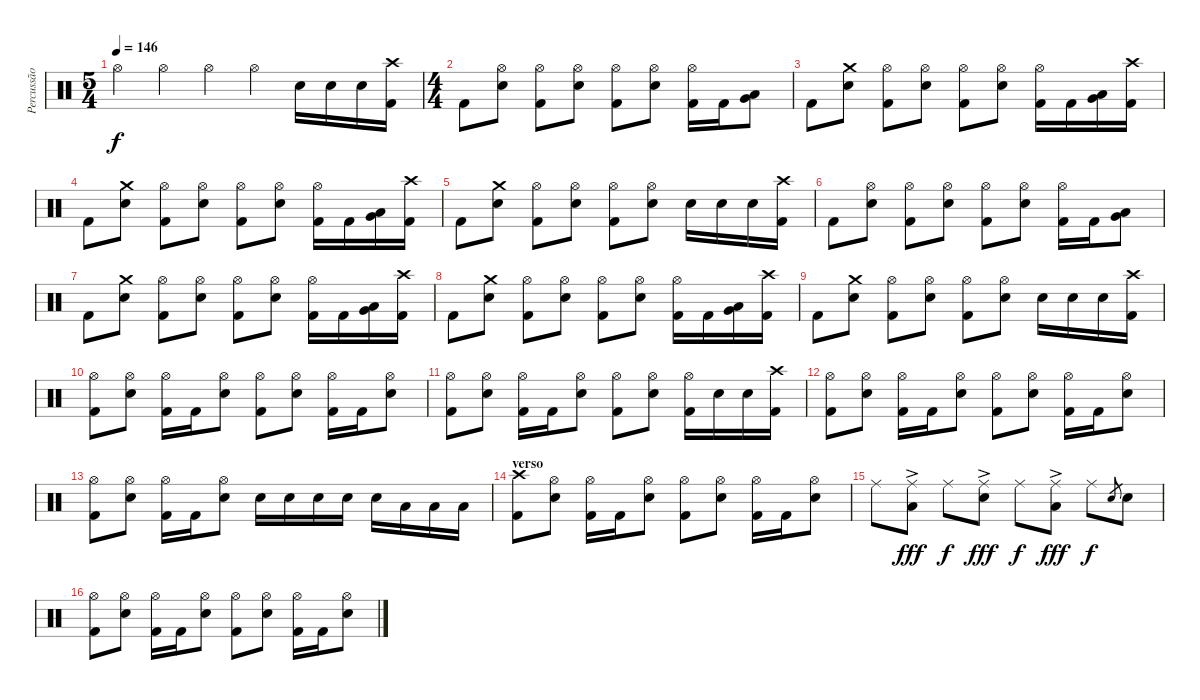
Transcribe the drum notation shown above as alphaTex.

\track ("Percussão" "Percussão") {instrument percussion}
\staff {score}
\articulation defaults
\ts (5 4)
\tempo 146
\clef neutral
\ks c "Hi-Hat (open)".4{dy f} "Hi-Hat (open)".4 "Hi-Hat (open)".4 "Hi-Hat (open)".4 "Snare (hit) 2".16 "Snare (hit) 2".16 "Snare (hit) 2".16
("Crash high (hit)" "Kick (hit) 2").16 |
\ts (4 4)
"Kick (hit) 2".8 ("Hi-Hat (open)" "Snare (hit) 2").8 ("Hi-Hat (open)" "Kick (hit) 2").8 ("Hi-Hat (open)" "Snare (hit) 2").8 ("Hi-Hat (open)" "Kick (hit) 2").8 ("Hi-Hat (open)" "Snare (hit) 2").8 ("Hi-Hat (open)" "Kick (hit) 2").16 "Kick (hit) 2".16 ("Very Low Tom (hit)" "Low Tom (hit)").8 |
"Kick (hit) 2".8 ("Crash medium (hit)" "Snare (hit) 2").8 ("Hi-Hat (open)" "Kick (hit) 2").8 ("Hi-Hat (open)" "Snare (hit) 2").8 ("Hi-Hat (open)" "Kick (hit) 2").8 ("Hi-Hat (open)" "Snare (hit) 2").8 ("Hi-Hat (open)" "Kick (hit) 2").16 "Kick (hit) 2".16 ("Very Low Tom (hit)" "Low Tom (hit)").16 ("Crash high (hit)" "Kick (hit) 2").16 |
"Kick (hit) 2".8 ("Crash medium (hit)" "Snare (hit) 2").8 ("Hi-Hat (open)" "Kick (hit) 2").8 ("Hi-Hat (open)" "Snare (hit) 2").8 ("Hi-Hat (open)" "Kick (hit) 2").8 ("Hi-Hat (open)" "Snare (hit) 2").8 ("Hi-Hat (open)" "Kick (hit) 2").16 "Kick (hit) 2".16 ("Very Low Tom (hit)" "Low Tom (hit)").16 ("Crash high (hit)" "Kick (hit) 2").16 |
"Kick (hit) 2".8 ("Crash medium (hit)" "Snare (hit) 2").8 ("Hi-Hat (open)" "Kick (hit) 2").8 ("Hi-Hat (open)" "Snare (hit) 2").8 ("Hi-Hat (open)" "Kick (hit) 2").8 ("Hi-Hat (open)" "Snare (hit) 2").8 "Snare (hit) 2".16 "Snare (hit) 2".16 "Snare (hit) 2".16 ("Crash high (hit)" "Kick (hit) 2").16 |
"Kick (hit) 2".8 ("Hi-Hat (open)" "Snare (hit) 2").8 ("Hi-Hat (open)" "Kick (hit) 2").8 ("Hi-Hat (open)" "Snare (hit) 2").8 ("Hi-Hat (open)" "Kick (hit) 2").8 ("Hi-Hat (open)" "Snare (hit) 2").8 ("Hi-Hat (open)" "Kick (hit) 2").16 "Kick (hit) 2".16 ("Very Low Tom (hit)" "Low Tom (hit)").8 |
"Kick (hit) 2".8 ("Crash medium (hit)" "Snare (hit) 2").8 ("Hi-Hat (open)" "Kick (hit) 2").8 ("Hi-Hat (open)" "Snare (hit) 2").8 ("Hi-Hat (open)" "Kick (hit) 2").8 ("Hi-Hat (open)" "Snare (hit) 2").8 ("Hi-Hat (open)" "Kick (hit) 2").16 "Kick (hit) 2".16 ("Very Low Tom (hit)" "Low Tom (hit)").16 ("Crash high (hit)" "Kick (hit) 2").16 |
"Kick (hit) 2".8 ("Crash medium (hit)" "Snare (hit) 2").8 ("Hi-Hat (open)" "Kick (hit) 2").8 ("Hi-Hat (open)" "Snare (hit) 2").8 ("Hi-Hat (open)" "Kick (hit) 2").8 ("Hi-Hat (open)" "Snare (hit) 2").8 ("Hi-Hat (open)" "Kick (hit) 2").16 "Kick (hit) 2".16 ("Very Low Tom (hit)" "Low Tom (hit)").16 ("Crash high (hit)" "Kick (hit) 2").16 |
"Kick (hit) 2".8 ("Crash medium (hit)" "Snare (hit) 2").8 ("Hi-Hat (open)" "Kick (hit) 2").8 ("Hi-Hat (open)" "Snare (hit) 2").8 ("Hi-Hat (open)" "Kick (hit) 2").8 ("Hi-Hat (open)" "Snare (hit) 2").8 "Snare (hit) 2".16 "Snare (hit) 2".16 "Snare (hit) 2".16 ("Crash high (hit)" "Kick (hit) 2").16 |
\section ("" "")
("Hi-Hat (open)" "Kick (hit) 2").8 ("Hi-Hat (open)" "Snare (hit) 2").8 ("Hi-Hat (open)" "Kick (hit) 2").16 "Kick (hit) 2".16 ("Hi-Hat (open)" "Snare (hit) 2").8 ("Hi-Hat (open)" "Kick (hit) 2").8 ("Hi-Hat (open)" "Snare (hit) 2").8 ("Hi-Hat (open)" "Kick (hit) 2").16 "Kick (hit) 2".16 ("Hi-Hat (open)" "Snare (hit) 2").8 |
("Hi-Hat (open)" "Kick (hit) 2").8 ("Hi-Hat (open)" "Snare (hit) 2").8 ("Hi-Hat (open)" "Kick (hit) 2").16 "Kick (hit) 2".16 ("Hi-Hat (open)" "Snare (hit) 2").8 ("Hi-Hat (open)" "Kick (hit) 2").8 ("Hi-Hat (open)" "Snare (hit) 2").8 ("Hi-Hat (open)" "Kick (hit) 2").16 "Snare (hit) 2".16 "Snare (hit) 2".16 ("Crash high (hit)" "Kick (hit) 2").16 |
("Hi-Hat (open)" "Kick (hit) 2").8 ("Hi-Hat (open)" "Snare (hit) 2").8 ("Hi-Hat (open)" "Kick (hit) 2").16 "Kick (hit) 2".16 ("Hi-Hat (open)" "Snare (hit) 2").8 ("Hi-Hat (open)" "Kick (hit) 2").8 ("Hi-Hat (open)" "Snare (hit) 2").8 ("Hi-Hat (open)" "Kick (hit) 2").16 "Kick (hit) 2".16 ("Hi-Hat (open)" "Snare (hit) 2").8 |
("Hi-Hat (open)" "Kick (hit) 2").8 ("Hi-Hat (open)" "Snare (hit) 2").8 ("Hi-Hat (open)" "Kick (hit) 2").16 "Kick (hit) 2".16 ("Hi-Hat (open)" "Snare (hit) 2").8 "Snare (hit) 2".16 "Snare (hit) 2".16 "Snare (hit) 2".16 "Snare (hit) 2".16 "Snare (hit) 2".16 "Low Tom (hit)".16 "Low Tom (hit)".16 "Low Tom (hit)".16 |
\section ("" "verso")
("Crash high (hit)" "Kick (hit) 2").8 ("Hi-Hat (open)" "Snare (hit) 2").8 ("Hi-Hat (open)" "Kick (hit) 2").16 "Kick (hit) 2".16 ("Hi-Hat (open)" "Snare (hit) 2").8 ("Hi-Hat (open)" "Kick (hit) 2").8 ("Hi-Hat (open)" "Snare (hit) 2").8 ("Hi-Hat (open)" "Kick (hit) 2").16 "Kick (hit) 2".16 ("Hi-Hat (open)" "Snare (hit) 2").8 |
"Ride (middle)".8 ("Ride (middle)"{ac} "Low Tom (hit)").8{dy fff} "Ride (middle)".8{dy f} ("Ride (middle)"{ac} "Snare (hit) 2").8{dy fff} "Ride (middle)".8{dy f} ("Ride (middle)"{ac} "Low Tom (hit)").8{dy fff} "Ride (middle)".8{dy f} "Snare (hit) 2".8{gr} "Snare (hit) 2".8 |
("Hi-Hat (open)" "Kick (hit) 2").8 ("Hi-Hat (open)" "Snare (hit) 2").8 ("Hi-Hat (open)" "Kick (hit) 2").16 "Kick (hit) 2".16 ("Hi-Hat (open)" "Snare (hit) 2").8 ("Hi-Hat (open)" "Kick (hit) 2").8 ("Hi-Hat (open)" "Snare (hit) 2").8 ("Hi-Hat (open)" "Kick (hit) 2").16 "Kick (hit) 2".16 ("Hi-Hat (open)" "Snare (hit) 2").8
